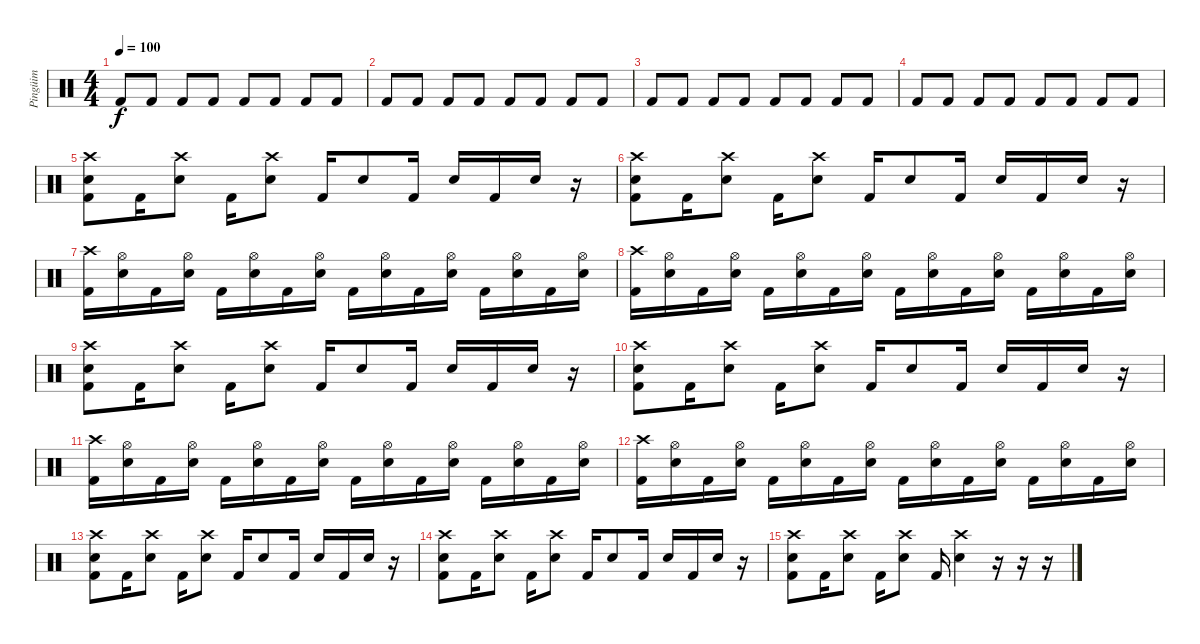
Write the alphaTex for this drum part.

\track ("Pingüim" "Pingüim") {instrument percussion}
\staff {score}
\articulation defaults
\ts (4 4)
\tempo 100
\clef neutral
\ks c "Kick (hit) 2".8{dy f} "Kick (hit) 2".8 "Kick (hit) 2".8 "Kick (hit) 2".8 "Kick (hit) 2".8 "Kick (hit) 2".8 "Kick (hit) 2".8 "Kick (hit) 2".8
|
"Kick (hit) 2".8 "Kick (hit) 2".8 "Kick (hit) 2".8 "Kick (hit) 2".8 "Kick (hit) 2".8 "Kick (hit) 2".8 "Kick (hit) 2".8 "Kick (hit) 2".8 |
"Kick (hit) 2".8 "Kick (hit) 2".8 "Kick (hit) 2".8 "Kick (hit) 2".8 "Kick (hit) 2".8 "Kick (hit) 2".8 "Kick (hit) 2".8 "Kick (hit) 2".8 |
"Kick (hit) 2".8 "Kick (hit) 2".8 "Kick (hit) 2".8 "Kick (hit) 2".8 "Kick (hit) 2".8 "Kick (hit) 2".8 "Kick (hit) 2".8 "Kick (hit) 2".8 |
("Snare (hit) 2" "Kick (hit) 2" "Crash high (hit)").8 "Kick (hit) 2".16 ("Snare (hit) 2" "Crash high (hit)").8 "Kick (hit) 2".16 ("Snare (hit) 2" "Crash high (hit)").8 "Kick (hit) 2".16 "Snare (hit) 2".8 "Kick (hit) 2".16 "Snare (hit) 2".16 "Kick (hit) 2".16 "Snare (hit) 2".16 r.16 |
("Snare (hit) 2" "Kick (hit) 2" "Crash high (hit)").8 "Kick (hit) 2".16 ("Snare (hit) 2" "Crash high (hit)").8 "Kick (hit) 2".16 ("Snare (hit) 2" "Crash high (hit)").8 "Kick (hit) 2".16 "Snare (hit) 2".8 "Kick (hit) 2".16 "Snare (hit) 2".16 "Kick (hit) 2".16 "Snare (hit) 2".16 r.16 |
("Kick (hit) 2" "Crash high (hit)").16 ("Snare (hit) 2" "Hi-Hat (open)").16 "Kick (hit) 2".16 ("Snare (hit) 2" "Hi-Hat (open)").16 "Kick (hit) 2".16 ("Snare (hit) 2" "Hi-Hat (open)").16 "Kick (hit) 2".16 ("Snare (hit) 2" "Hi-Hat (open)").16 "Kick (hit) 2".16 ("Snare (hit) 2" "Hi-Hat (open)").16 "Kick (hit) 2".16 ("Snare (hit) 2" "Hi-Hat (open)").16 "Kick (hit) 2".16 ("Snare (hit) 2" "Hi-Hat (open)").16 "Kick (hit) 2".16 ("Snare (hit) 2" "Hi-Hat (open)").16 |
("Kick (hit) 2" "Crash high (hit)").16 ("Snare (hit) 2" "Hi-Hat (open)").16 "Kick (hit) 2".16 ("Snare (hit) 2" "Hi-Hat (open)").16 "Kick (hit) 2".16 ("Snare (hit) 2" "Hi-Hat (open)").16 "Kick (hit) 2".16 ("Snare (hit) 2" "Hi-Hat (open)").16 "Kick (hit) 2".16 ("Snare (hit) 2" "Hi-Hat (open)").16 "Kick (hit) 2".16 ("Snare (hit) 2" "Hi-Hat (open)").16 "Kick (hit) 2".16 ("Snare (hit) 2" "Hi-Hat (open)").16 "Kick (hit) 2".16 ("Snare (hit) 2" "Hi-Hat (open)").16 |
("Snare (hit) 2" "Kick (hit) 2" "Crash high (hit)").8 "Kick (hit) 2".16 ("Snare (hit) 2" "Crash high (hit)").8 "Kick (hit) 2".16 ("Snare (hit) 2" "Crash high (hit)").8 "Kick (hit) 2".16 "Snare (hit) 2".8 "Kick (hit) 2".16 "Snare (hit) 2".16 "Kick (hit) 2".16 "Snare (hit) 2".16 r.16 |
("Snare (hit) 2" "Kick (hit) 2" "Crash high (hit)").8 "Kick (hit) 2".16 ("Snare (hit) 2" "Crash high (hit)").8 "Kick (hit) 2".16 ("Snare (hit) 2" "Crash high (hit)").8 "Kick (hit) 2".16 "Snare (hit) 2".8 "Kick (hit) 2".16 "Snare (hit) 2".16 "Kick (hit) 2".16 "Snare (hit) 2".16 r.16 |
("Kick (hit) 2" "Crash high (hit)").16 ("Snare (hit) 2" "Hi-Hat (open)").16 "Kick (hit) 2".16 ("Snare (hit) 2" "Hi-Hat (open)").16 "Kick (hit) 2".16 ("Snare (hit) 2" "Hi-Hat (open)").16 "Kick (hit) 2".16 ("Snare (hit) 2" "Hi-Hat (open)").16 "Kick (hit) 2".16 ("Snare (hit) 2" "Hi-Hat (open)").16 "Kick (hit) 2".16 ("Snare (hit) 2" "Hi-Hat (open)").16 "Kick (hit) 2".16 ("Snare (hit) 2" "Hi-Hat (open)").16 "Kick (hit) 2".16 ("Snare (hit) 2" "Hi-Hat (open)").16 |
("Kick (hit) 2" "Crash high (hit)").16 ("Snare (hit) 2" "Hi-Hat (open)").16 "Kick (hit) 2".16 ("Snare (hit) 2" "Hi-Hat (open)").16 "Kick (hit) 2".16 ("Snare (hit) 2" "Hi-Hat (open)").16 "Kick (hit) 2".16 ("Snare (hit) 2" "Hi-Hat (open)").16 "Kick (hit) 2".16 ("Snare (hit) 2" "Hi-Hat (open)").16 "Kick (hit) 2".16 ("Snare (hit) 2" "Hi-Hat (open)").16 "Kick (hit) 2".16 ("Snare (hit) 2" "Hi-Hat (open)").16 "Kick (hit) 2".16 ("Snare (hit) 2" "Hi-Hat (open)").16 |
("Snare (hit) 2" "Kick (hit) 2" "Crash high (hit)").8 "Kick (hit) 2".16 ("Snare (hit) 2" "Crash high (hit)").8 "Kick (hit) 2".16 ("Snare (hit) 2" "Crash high (hit)").8 "Kick (hit) 2".16 "Snare (hit) 2".8 "Kick (hit) 2".16 "Snare (hit) 2".16 "Kick (hit) 2".16 "Snare (hit) 2".16 r.16 |
("Snare (hit) 2" "Kick (hit) 2" "Crash high (hit)").8 "Kick (hit) 2".16 ("Snare (hit) 2" "Crash high (hit)").8 "Kick (hit) 2".16 ("Snare (hit) 2" "Crash high (hit)").8 "Kick (hit) 2".16 "Snare (hit) 2".8 "Kick (hit) 2".16 "Snare (hit) 2".16 "Kick (hit) 2".16 "Snare (hit) 2".16 r.16 |
("Snare (hit) 2" "Kick (hit) 2" "Crash high (hit)").8 "Kick (hit) 2".16 ("Snare (hit) 2" "Crash high (hit)").8 "Kick (hit) 2".16 ("Snare (hit) 2" "Crash high (hit)").8 "Kick (hit) 2".16 ("Snare (hit) 2" "Crash high (hit)").4 r.16 r.16 r.16
